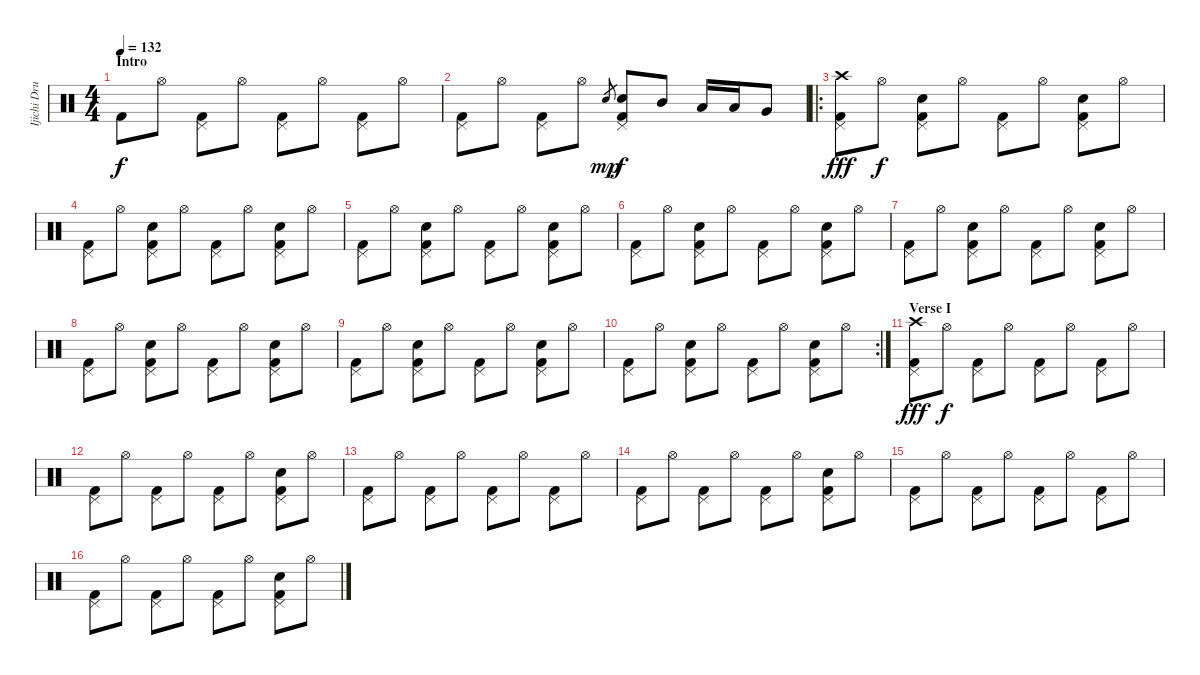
\track ("Ijichi Drums" "Ijichi Dru") {instrument percussion}
\staff {score}
\articulation defaults
\ts (4 4)
\section ("" "Intro")
\tempo 132
\clef neutral
\ks c "Kick (hit) 2".8{dy f} "Hi-Hat (open)".8
("Pedal Hi-Hat (hit)" "Kick (hit) 2").8 "Hi-Hat (open)".8 ("Pedal Hi-Hat (hit)" "Kick (hit) 2").8 "Hi-Hat (open)".8 ("Pedal Hi-Hat (hit)" "Kick (hit) 2").8 "Hi-Hat (open)".8 |
("Pedal Hi-Hat (hit)" "Kick (hit) 2").8 "Hi-Hat (open)".8 ("Pedal Hi-Hat (hit)" "Kick (hit) 2").8 "Hi-Hat (open)".8 "Electric Snare (hit)".8{gr dy mp} ("Pedal Hi-Hat (hit)" "Electric Snare (hit)" "Kick (hit) 2").8{dy f} "Mid Tom (hit)".8 "Low Tom (hit)".16 "Low Tom (hit)".16 "Very Low Tom (hit)".8 |
\ro
("Pedal Hi-Hat (hit)" "Crash high (hit)" "Kick (hit) 2").8{dy fff} "Hi-Hat (open)".8{dy f} ("Pedal Hi-Hat (hit)" "Snare (hit) 2" "Kick (hit) 2").8 "Hi-Hat (open)".8 ("Pedal Hi-Hat (hit)" "Kick (hit) 2").8 "Hi-Hat (open)".8 ("Pedal Hi-Hat (hit)" "Snare (hit) 2" "Kick (hit) 2").8 "Hi-Hat (open)".8 |
("Pedal Hi-Hat (hit)" "Kick (hit) 2").8 "Hi-Hat (open)".8 ("Pedal Hi-Hat (hit)" "Snare (hit) 2" "Kick (hit) 2").8 "Hi-Hat (open)".8 ("Pedal Hi-Hat (hit)" "Kick (hit) 2").8 "Hi-Hat (open)".8 ("Pedal Hi-Hat (hit)" "Snare (hit) 2" "Kick (hit) 2").8 "Hi-Hat (open)".8 |
("Pedal Hi-Hat (hit)" "Kick (hit) 2").8 "Hi-Hat (open)".8 ("Pedal Hi-Hat (hit)" "Snare (hit) 2" "Kick (hit) 2").8 "Hi-Hat (open)".8 ("Pedal Hi-Hat (hit)" "Kick (hit) 2").8 "Hi-Hat (open)".8 ("Pedal Hi-Hat (hit)" "Snare (hit) 2" "Kick (hit) 2").8 "Hi-Hat (open)".8 |
("Pedal Hi-Hat (hit)" "Kick (hit) 2").8 "Hi-Hat (open)".8 ("Pedal Hi-Hat (hit)" "Snare (hit) 2" "Kick (hit) 2").8 "Hi-Hat (open)".8 ("Pedal Hi-Hat (hit)" "Kick (hit) 2").8 "Hi-Hat (open)".8 ("Pedal Hi-Hat (hit)" "Snare (hit) 2" "Kick (hit) 2").8 "Hi-Hat (open)".8 |
("Pedal Hi-Hat (hit)" "Kick (hit) 2").8 "Hi-Hat (open)".8 ("Pedal Hi-Hat (hit)" "Snare (hit) 2" "Kick (hit) 2").8 "Hi-Hat (open)".8 ("Pedal Hi-Hat (hit)" "Kick (hit) 2").8 "Hi-Hat (open)".8 ("Pedal Hi-Hat (hit)" "Snare (hit) 2" "Kick (hit) 2").8 "Hi-Hat (open)".8 |
("Pedal Hi-Hat (hit)" "Kick (hit) 2").8 "Hi-Hat (open)".8 ("Pedal Hi-Hat (hit)" "Snare (hit) 2" "Kick (hit) 2").8 "Hi-Hat (open)".8 ("Pedal Hi-Hat (hit)" "Kick (hit) 2").8 "Hi-Hat (open)".8 ("Pedal Hi-Hat (hit)" "Snare (hit) 2" "Kick (hit) 2").8 "Hi-Hat (open)".8 |
("Pedal Hi-Hat (hit)" "Kick (hit) 2").8 "Hi-Hat (open)".8 ("Pedal Hi-Hat (hit)" "Snare (hit) 2" "Kick (hit) 2").8 "Hi-Hat (open)".8 ("Pedal Hi-Hat (hit)" "Kick (hit) 2").8 "Hi-Hat (open)".8 ("Pedal Hi-Hat (hit)" "Snare (hit) 2" "Kick (hit) 2").8 "Hi-Hat (open)".8 |
\rc 2
("Pedal Hi-Hat (hit)" "Kick (hit) 2").8 "Hi-Hat (open)".8 ("Pedal Hi-Hat (hit)" "Snare (hit) 2" "Kick (hit) 2").8 "Hi-Hat (open)".8 ("Pedal Hi-Hat (hit)" "Kick (hit) 2").8 "Hi-Hat (open)".8 ("Pedal Hi-Hat (hit)" "Snare (hit) 2" "Kick (hit) 2").8 "Hi-Hat (open)".8 |
\section ("" "Verse I")
("Pedal Hi-Hat (hit)" "Crash high (hit)" "Kick (hit) 2").8{dy fff} "Hi-Hat (open)".8{dy f} ("Pedal Hi-Hat (hit)" "Kick (hit) 2").8 "Hi-Hat (open)".8 ("Pedal Hi-Hat (hit)" "Kick (hit) 2").8 "Hi-Hat (open)".8 ("Pedal Hi-Hat (hit)" "Kick (hit) 2").8 "Hi-Hat (open)".8 |
("Pedal Hi-Hat (hit)" "Kick (hit) 2").8 "Hi-Hat (open)".8 ("Pedal Hi-Hat (hit)" "Kick (hit) 2").8 "Hi-Hat (open)".8 ("Pedal Hi-Hat (hit)" "Kick (hit) 2").8 "Hi-Hat (open)".8 ("Pedal Hi-Hat (hit)" "Snare (hit) 2" "Kick (hit) 2").8 "Hi-Hat (open)".8 |
("Pedal Hi-Hat (hit)" "Kick (hit) 2").8 "Hi-Hat (open)".8 ("Pedal Hi-Hat (hit)" "Kick (hit) 2").8 "Hi-Hat (open)".8 ("Pedal Hi-Hat (hit)" "Kick (hit) 2").8 "Hi-Hat (open)".8 ("Pedal Hi-Hat (hit)" "Kick (hit) 2").8 "Hi-Hat (open)".8 |
("Pedal Hi-Hat (hit)" "Kick (hit) 2").8 "Hi-Hat (open)".8 ("Pedal Hi-Hat (hit)" "Kick (hit) 2").8 "Hi-Hat (open)".8 ("Pedal Hi-Hat (hit)" "Kick (hit) 2").8 "Hi-Hat (open)".8 ("Pedal Hi-Hat (hit)" "Snare (hit) 2" "Kick (hit) 2").8 "Hi-Hat (open)".8 |
("Pedal Hi-Hat (hit)" "Kick (hit) 2").8 "Hi-Hat (open)".8 ("Pedal Hi-Hat (hit)" "Kick (hit) 2").8 "Hi-Hat (open)".8 ("Pedal Hi-Hat (hit)" "Kick (hit) 2").8 "Hi-Hat (open)".8 ("Pedal Hi-Hat (hit)" "Kick (hit) 2").8 "Hi-Hat (open)".8 |
("Pedal Hi-Hat (hit)" "Kick (hit) 2").8 "Hi-Hat (open)".8 ("Pedal Hi-Hat (hit)" "Kick (hit) 2").8 "Hi-Hat (open)".8 ("Pedal Hi-Hat (hit)" "Kick (hit) 2").8 "Hi-Hat (open)".8 ("Pedal Hi-Hat (hit)" "Snare (hit) 2" "Kick (hit) 2").8 "Hi-Hat (open)".8
